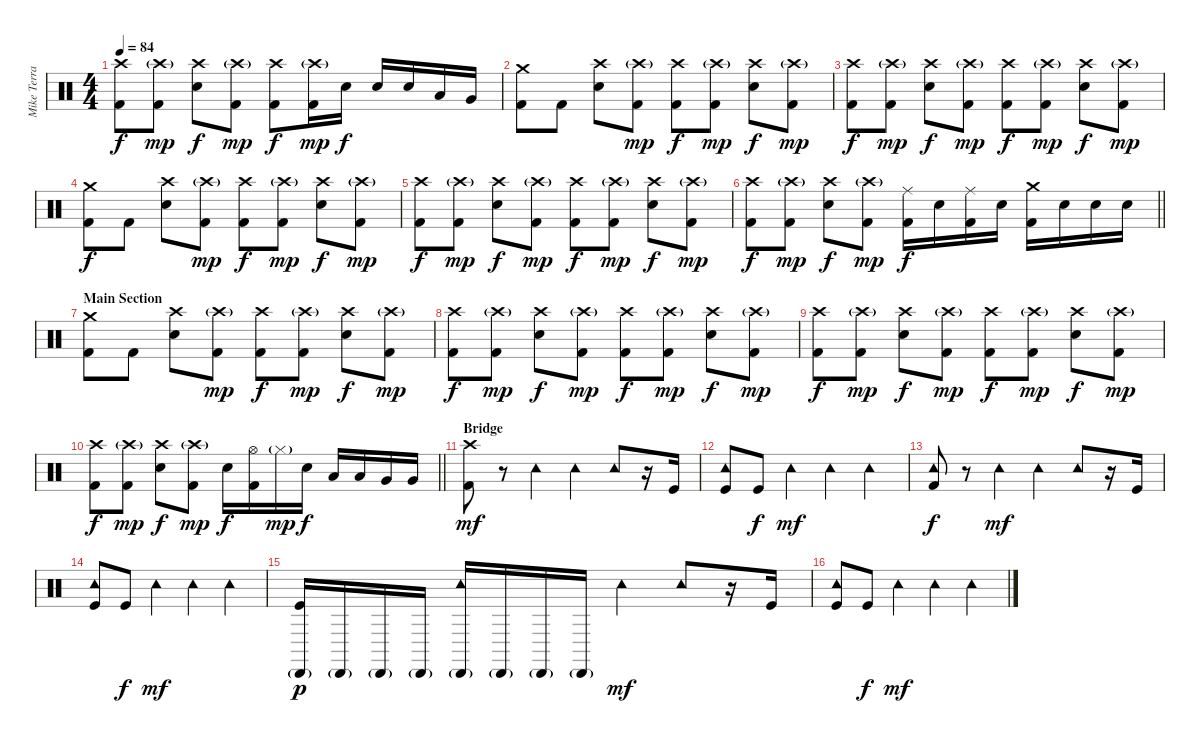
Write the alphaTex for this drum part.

\track ("Mike Terrana" "Mike Terra") {instrument percussion}
\staff {score}
\articulation defaults
\ts (4 4)
\tempo 84
\clef neutral
\ks c
("Crash high (hit)" "Kick (hit) 2").8{dy f} ("Crash high (hit)"{g} "Kick (hit) 2").8{dy mp} ("Crash high (hit)" "Snare (hit) 2").8{dy f} ("Crash high (hit)"{g} "Kick (hit) 2").8{dy mp} ("Crash high (hit)" "Kick (hit) 2").8{dy f} ("Crash high (hit)"{g} "Kick (hit) 2").16{dy mp} "Snare (hit) 2".16{dy f} "Snare (hit) 2".16 "Snare (hit) 2".16 "Low Tom (hit)".16 "Very Low Tom (hit)".16 |
("Crash medium (hit)" "Kick (hit) 2").8 "Kick (hit) 2".8 ("Crash high (hit)" "Snare (hit) 2").8 ("Crash high (hit)"{g} "Kick (hit) 2").8{dy mp} ("Crash high (hit)" "Kick (hit) 2").8{dy f} ("Crash high (hit)"{g} "Kick (hit) 2").8{dy mp} ("Crash high (hit)" "Snare (hit) 2").8{dy f} ("Crash high (hit)"{g} "Kick (hit) 2").8{dy mp} |
("Crash high (hit)" "Kick (hit) 2").8{dy f} ("Crash high (hit)"{g} "Kick (hit) 2").8{dy mp} ("Crash high (hit)" "Snare (hit) 2").8{dy f} ("Crash high (hit)"{g} "Kick (hit) 2").8{dy mp} ("Crash high (hit)" "Kick (hit) 2").8{dy f} ("Crash high (hit)"{g} "Kick (hit) 2").8{dy mp} ("Crash high (hit)" "Snare (hit) 2").8{dy f} ("Crash high (hit)"{g} "Kick (hit) 2").8{dy mp} |
("Crash medium (hit)" "Kick (hit) 2").8{dy f} "Kick (hit) 2".8 ("Crash high (hit)" "Snare (hit) 2").8 ("Crash high (hit)"{g} "Kick (hit) 2").8{dy mp} ("Crash high (hit)" "Kick (hit) 2").8{dy f} ("Crash high (hit)"{g} "Kick (hit) 2").8{dy mp} ("Crash high (hit)" "Snare (hit) 2").8{dy f} ("Crash high (hit)"{g} "Kick (hit) 2").8{dy mp} |
("Crash high (hit)" "Kick (hit) 2").8{dy f} ("Crash high (hit)"{g} "Kick (hit) 2").8{dy mp} ("Crash high (hit)" "Snare (hit) 2").8{dy f} ("Crash high (hit)"{g} "Kick (hit) 2").8{dy mp} ("Crash high (hit)" "Kick (hit) 2").8{dy f} ("Crash high (hit)"{g} "Kick (hit) 2").8{dy mp} ("Crash high (hit)" "Snare (hit) 2").8{dy f} ("Crash high (hit)"{g} "Kick (hit) 2").8{dy mp} |
\barLineRight lightlight
("Crash high (hit)" "Kick (hit) 2").8{dy f} ("Crash high (hit)"{g} "Kick (hit) 2").8{dy mp} ("Crash high (hit)" "Snare (hit) 2").8{dy f} ("Crash high (hit)"{g} "Kick (hit) 2").8{dy mp} ("Ride (middle)" "Kick (hit) 2").16{dy f} "Snare (hit) 2".16 ("Ride (middle)" "Kick (hit) 2").16 "Snare (hit) 2".16 ("Crash medium (hit)" "Kick (hit) 2").16 "Snare (hit) 2".16 "Snare (hit) 2".16 "Snare (hit) 2".16 |
\section ("" "Main Section")
("Crash medium (hit)" "Kick (hit) 2").8 "Kick (hit) 2".8 ("Crash high (hit)" "Snare (hit) 2").8 ("Crash high (hit)"{g} "Kick (hit) 2").8{dy mp} ("Crash high (hit)" "Kick (hit) 2").8{dy f} ("Crash high (hit)"{g} "Kick (hit) 2").8{dy mp} ("Crash high (hit)" "Snare (hit) 2").8{dy f} ("Crash high (hit)"{g} "Kick (hit) 2").8{dy mp} |
("Crash high (hit)" "Kick (hit) 2").8{dy f} ("Crash high (hit)"{g} "Kick (hit) 2").8{dy mp} ("Crash high (hit)" "Snare (hit) 2").8{dy f} ("Crash high (hit)"{g} "Kick (hit) 2").8{dy mp} ("Crash high (hit)" "Kick (hit) 2").8{dy f} ("Crash high (hit)"{g} "Kick (hit) 2").8{dy mp} ("Crash high (hit)" "Snare (hit) 2").8{dy f} ("Crash high (hit)"{g} "Kick (hit) 2").8{dy mp} |
("Crash high (hit)" "Kick (hit) 2").8{dy f} ("Crash high (hit)"{g} "Kick (hit) 2").8{dy mp} ("Crash high (hit)" "Snare (hit) 2").8{dy f} ("Crash high (hit)"{g} "Kick (hit) 2").8{dy mp} ("Crash high (hit)" "Kick (hit) 2").8{dy f} ("Crash high (hit)"{g} "Kick (hit) 2").8{dy mp} ("Crash high (hit)" "Snare (hit) 2").8{dy f} ("Crash high (hit)"{g} "Kick (hit) 2").8{dy mp} |
\barLineRight lightlight
("Crash high (hit)" "Kick (hit) 2").8{dy f} ("Crash high (hit)"{g} "Kick (hit) 2").8{dy mp} ("Crash high (hit)" "Snare (hit) 2").8{dy f} ("Crash high (hit)"{g} "Kick (hit) 2").8{dy mp} "Snare (hit) 2".16{dy f} ("Hi-Hat (open)" "Kick (hit) 2").16 "Hi-Hat (closed)"{g}.16{dy mp} "Snare (hit) 2".16{dy f} "Low Tom (hit)".16 "Low Tom (hit)".16 "Very Low Tom (hit)".16 "Very Low Tom (hit)".16 |
\section ("" "Bridge")
("Crash high (hit)" "Kick (hit) 2").8{dy mf} r.8 "Tambourine (hit)".4 "Tambourine (hit)".4 "Tambourine (hit)".8 r.16 "Kick (hit)".16 |
("Tambourine (hit)" "Kick (hit)").8 "Kick (hit)".8{dy f} "Tambourine (hit)".4{dy mf} "Tambourine (hit)".4 "Tambourine (hit)".4 |
("Tambourine (hit)" "Kick (hit) 2").8{dy f} r.8 "Tambourine (hit)".4{dy mf} "Tambourine (hit)".4 "Tambourine (hit)".8 r.16 "Kick (hit)".16 |
("Tambourine (hit)" "Kick (hit)").8 "Kick (hit)".8{dy f} "Tambourine (hit)".4{dy mf} "Tambourine (hit)".4 "Tambourine (hit)".4 |
("Cabasa (hit)"{g} "Kick (hit)").16{dy p} "Cabasa (hit)"{g}.16 "Cabasa (hit)"{g}.16 "Cabasa (hit)"{g}.16 ("Cabasa (hit)"{g} "Tambourine (hit)").16 "Cabasa (hit)"{g}.16 "Cabasa (hit)"{g}.16 "Cabasa (hit)"{g}.16 "Tambourine (hit)".4{dy mf} "Tambourine (hit)".8 r.16 "Kick (hit)".16 |
("Tambourine (hit)" "Kick (hit)").8 "Kick (hit)".8{dy f} "Tambourine (hit)".4{dy mf} "Tambourine (hit)".4 "Tambourine (hit)".4
